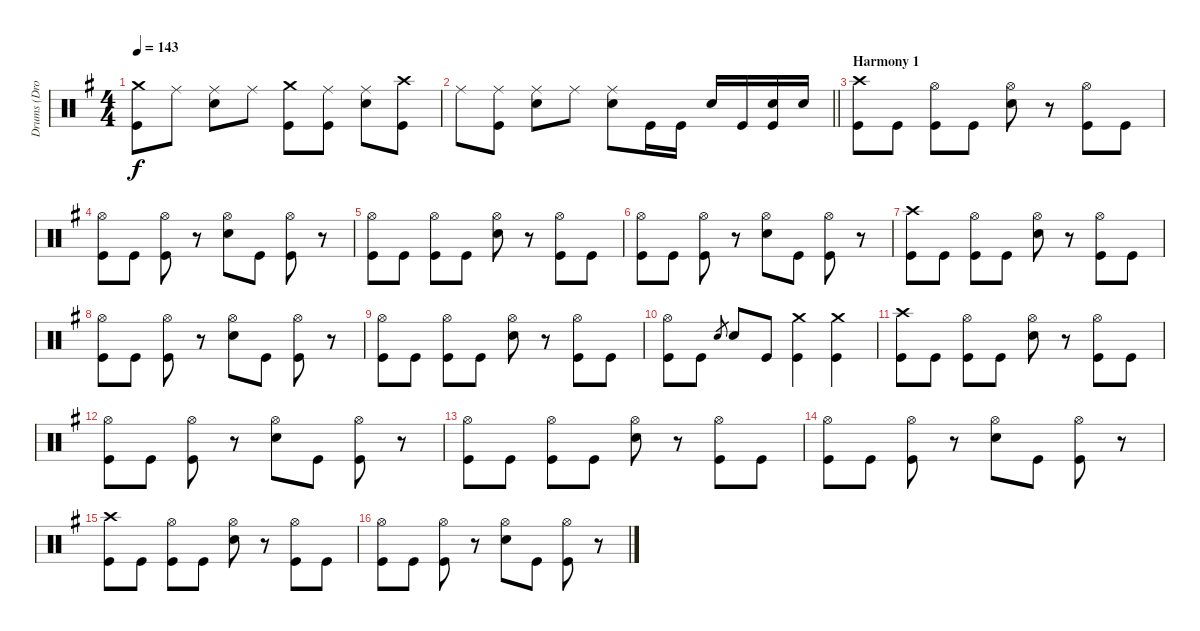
\track ("Drums (Drover)" "Drums (Dro") {instrument percussion}
\staff {score}
\articulation defaults
\ts (4 4)
\tempo 143
\clef neutral
\ks g
("Crash medium (hit)" "Kick (hit)").8{dy f} "Ride (middle)".8 ("Ride (middle)" "Snare (hit) 2").8 "Ride (middle)".8 ("Crash medium (hit)" "Kick (hit)").8 ("Ride (middle)" "Kick (hit)").8 ("Ride (middle)" "Snare (hit) 2").8 ("Crash high (hit)" "Kick (hit)").8 |
\barLineRight lightlight "Ride (middle)".8
("Ride (middle)" "Kick (hit)").8 ("Ride (middle)" "Snare (hit) 2").8 "Ride (middle)".8 ("Ride (middle)" "Snare (hit) 2").8 "Kick (hit)".16 "Kick (hit)".16 "Snare (hit) 2".16 "Kick (hit)".16 ("Snare (hit) 2" "Kick (hit)").16 "Snare (hit) 2".16 |
\section ("" "Harmony 1")
("Crash high (hit)" "Kick (hit)").8 "Kick (hit)".8 ("Hi-Hat (open)" "Kick (hit)").8 "Kick (hit)".8 ("Hi-Hat (open)" "Snare (hit) 2").8 r.8 ("Hi-Hat (open)" "Kick (hit)").8 "Kick (hit)".8 |
("Hi-Hat (open)" "Kick (hit)").8 "Kick (hit)".8 ("Hi-Hat (open)" "Kick (hit)").8 r.8 ("Hi-Hat (open)" "Snare (hit) 2").8 "Kick (hit)".8 ("Hi-Hat (open)" "Kick (hit)").8 r.8 |
("Hi-Hat (open)" "Kick (hit)").8 "Kick (hit)".8 ("Hi-Hat (open)" "Kick (hit)").8 "Kick (hit)".8 ("Hi-Hat (open)" "Snare (hit) 2").8 r.8 ("Hi-Hat (open)" "Kick (hit)").8 "Kick (hit)".8 |
("Hi-Hat (open)" "Kick (hit)").8 "Kick (hit)".8 ("Hi-Hat (open)" "Kick (hit)").8 r.8 ("Hi-Hat (open)" "Snare (hit) 2").8 "Kick (hit)".8 ("Hi-Hat (open)" "Kick (hit)").8 r.8 |
("Crash high (hit)" "Kick (hit)").8 "Kick (hit)".8 ("Hi-Hat (open)" "Kick (hit)").8 "Kick (hit)".8 ("Hi-Hat (open)" "Snare (hit) 2").8 r.8 ("Hi-Hat (open)" "Kick (hit)").8 "Kick (hit)".8 |
("Hi-Hat (open)" "Kick (hit)").8 "Kick (hit)".8 ("Hi-Hat (open)" "Kick (hit)").8 r.8 ("Hi-Hat (open)" "Snare (hit) 2").8 "Kick (hit)".8 ("Hi-Hat (open)" "Kick (hit)").8 r.8 |
("Hi-Hat (open)" "Kick (hit)").8 "Kick (hit)".8 ("Hi-Hat (open)" "Kick (hit)").8 "Kick (hit)".8 ("Hi-Hat (open)" "Snare (hit) 2").8 r.8 ("Hi-Hat (open)" "Kick (hit)").8 "Kick (hit)".8 |
("Hi-Hat (open)" "Kick (hit)").8 "Kick (hit)".8 "Snare (hit) 2".8{gr} "Snare (hit) 2".8 "Kick (hit)".8 ("Crash medium (hit)" "Kick (hit)").4 ("Crash medium (hit)" "Kick (hit)").4 |
("Crash high (hit)" "Kick (hit)").8 "Kick (hit)".8 ("Hi-Hat (open)" "Kick (hit)").8 "Kick (hit)".8 ("Hi-Hat (open)" "Snare (hit) 2").8 r.8 ("Hi-Hat (open)" "Kick (hit)").8 "Kick (hit)".8 |
("Hi-Hat (open)" "Kick (hit)").8 "Kick (hit)".8 ("Hi-Hat (open)" "Kick (hit)").8 r.8 ("Hi-Hat (open)" "Snare (hit) 2").8 "Kick (hit)".8 ("Hi-Hat (open)" "Kick (hit)").8 r.8 |
("Hi-Hat (open)" "Kick (hit)").8 "Kick (hit)".8 ("Hi-Hat (open)" "Kick (hit)").8 "Kick (hit)".8 ("Hi-Hat (open)" "Snare (hit) 2").8 r.8 ("Hi-Hat (open)" "Kick (hit)").8 "Kick (hit)".8 |
("Hi-Hat (open)" "Kick (hit)").8 "Kick (hit)".8 ("Hi-Hat (open)" "Kick (hit)").8 r.8 ("Hi-Hat (open)" "Snare (hit) 2").8 "Kick (hit)".8 ("Hi-Hat (open)" "Kick (hit)").8 r.8 |
("Crash high (hit)" "Kick (hit)").8 "Kick (hit)".8 ("Hi-Hat (open)" "Kick (hit)").8 "Kick (hit)".8 ("Hi-Hat (open)" "Snare (hit) 2").8 r.8 ("Hi-Hat (open)" "Kick (hit)").8 "Kick (hit)".8 |
("Hi-Hat (open)" "Kick (hit)").8 "Kick (hit)".8 ("Hi-Hat (open)" "Kick (hit)").8 r.8 ("Hi-Hat (open)" "Snare (hit) 2").8 "Kick (hit)".8 ("Hi-Hat (open)" "Kick (hit)").8 r.8
